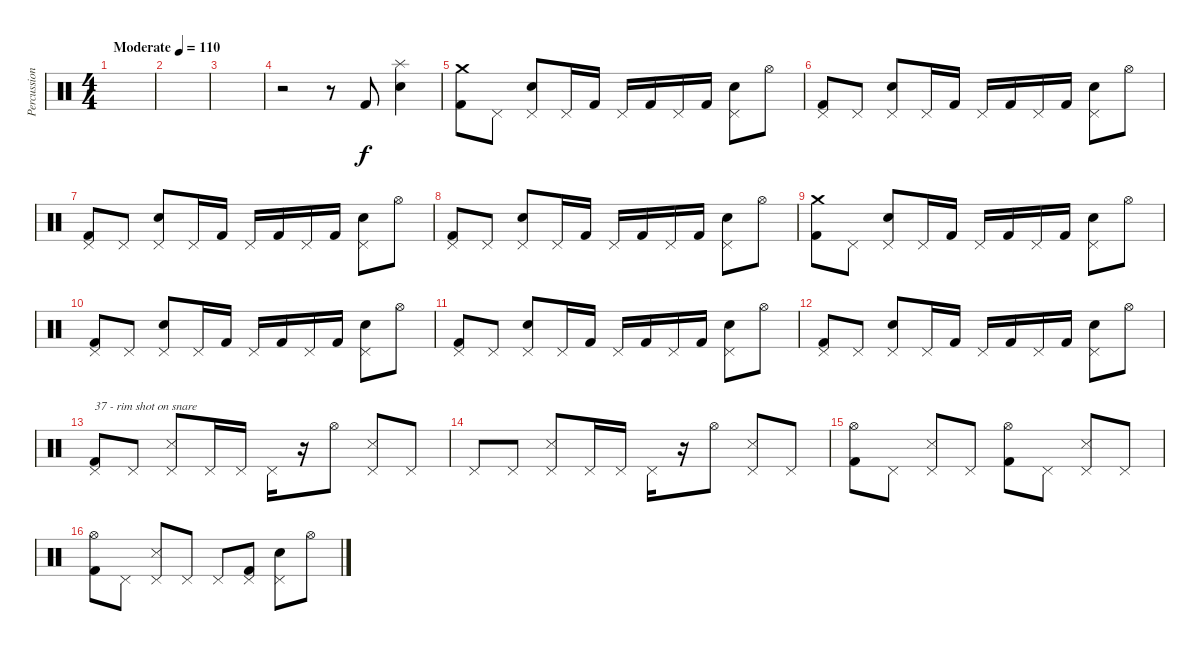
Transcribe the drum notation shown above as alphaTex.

\track ("Percussion" "Percussion") {instrument percussion}
\staff {score}
\articulation defaults
\ts (4 4)
\tempo (110 "Moderate")
\clef neutral
\ks c
|
|
|
r.2 r.8 "Kick (hit) 2".8 ("Electric Snare (hit)" "Splash (hit)").4{dy f} |
("Crash medium (hit)" "Kick (hit) 2").8 "Pedal Hi-Hat (hit)".8 ("Pedal Hi-Hat (hit)" "Electric Snare (hit)").8 "Pedal Hi-Hat (hit)".16 "Kick (hit) 2".16 "Pedal Hi-Hat (hit)".16 "Kick (hit) 2".16 "Pedal Hi-Hat (hit)".16 "Kick (hit) 2".16 ("Pedal Hi-Hat (hit)" "Electric Snare (hit)").8 "Hi-Hat (open)".8 |
("Pedal Hi-Hat (hit)" "Kick (hit) 2").8 "Pedal Hi-Hat (hit)".8 ("Pedal Hi-Hat (hit)" "Electric Snare (hit)").8 "Pedal Hi-Hat (hit)".16 "Kick (hit) 2".16 "Pedal Hi-Hat (hit)".16 "Kick (hit) 2".16 "Pedal Hi-Hat (hit)".16 "Kick (hit) 2".16 ("Pedal Hi-Hat (hit)" "Electric Snare (hit)").8 "Hi-Hat (open)".8 |
("Pedal Hi-Hat (hit)" "Kick (hit) 2").8 "Pedal Hi-Hat (hit)".8 ("Pedal Hi-Hat (hit)" "Electric Snare (hit)").8 "Pedal Hi-Hat (hit)".16 "Kick (hit) 2".16 "Pedal Hi-Hat (hit)".16 "Kick (hit) 2".16 "Pedal Hi-Hat (hit)".16 "Kick (hit) 2".16 ("Pedal Hi-Hat (hit)" "Electric Snare (hit)").8 "Hi-Hat (open)".8 |
("Pedal Hi-Hat (hit)" "Kick (hit) 2").8 "Pedal Hi-Hat (hit)".8 ("Pedal Hi-Hat (hit)" "Electric Snare (hit)").8 "Pedal Hi-Hat (hit)".16 "Kick (hit) 2".16 "Pedal Hi-Hat (hit)".16 "Kick (hit) 2".16 "Pedal Hi-Hat (hit)".16 "Kick (hit) 2".16 ("Pedal Hi-Hat (hit)" "Electric Snare (hit)").8 "Hi-Hat (open)".8 |
("Crash medium (hit)" "Kick (hit) 2").8 "Pedal Hi-Hat (hit)".8 ("Pedal Hi-Hat (hit)" "Electric Snare (hit)").8 "Pedal Hi-Hat (hit)".16 "Kick (hit) 2".16 "Pedal Hi-Hat (hit)".16 "Kick (hit) 2".16 "Pedal Hi-Hat (hit)".16 "Kick (hit) 2".16 ("Pedal Hi-Hat (hit)" "Electric Snare (hit)").8 "Hi-Hat (open)".8 |
("Pedal Hi-Hat (hit)" "Kick (hit) 2").8 "Pedal Hi-Hat (hit)".8 ("Pedal Hi-Hat (hit)" "Electric Snare (hit)").8 "Pedal Hi-Hat (hit)".16 "Kick (hit) 2".16 "Pedal Hi-Hat (hit)".16 "Kick (hit) 2".16 "Pedal Hi-Hat (hit)".16 "Kick (hit) 2".16 ("Pedal Hi-Hat (hit)" "Electric Snare (hit)").8 "Hi-Hat (open)".8 |
("Pedal Hi-Hat (hit)" "Kick (hit) 2").8 "Pedal Hi-Hat (hit)".8 ("Pedal Hi-Hat (hit)" "Electric Snare (hit)").8 "Pedal Hi-Hat (hit)".16 "Kick (hit) 2".16 "Pedal Hi-Hat (hit)".16 "Kick (hit) 2".16 "Pedal Hi-Hat (hit)".16 "Kick (hit) 2".16 ("Pedal Hi-Hat (hit)" "Electric Snare (hit)").8 "Hi-Hat (open)".8 |
("Pedal Hi-Hat (hit)" "Kick (hit) 2").8 "Pedal Hi-Hat (hit)".8 ("Pedal Hi-Hat (hit)" "Electric Snare (hit)").8 "Pedal Hi-Hat (hit)".16 "Kick (hit) 2".16 "Pedal Hi-Hat (hit)".16 "Kick (hit) 2".16 "Pedal Hi-Hat (hit)".16 "Kick (hit) 2".16 ("Pedal Hi-Hat (hit)" "Electric Snare (hit)").8 "Hi-Hat (open)".8 |
("Pedal Hi-Hat (hit)" "Kick (hit) 2").8{txt "37 - rim shot on snare"} "Pedal Hi-Hat (hit)".8 ("Pedal Hi-Hat (hit)" "Snare (side stick) 3").8 "Pedal Hi-Hat (hit)".16 "Pedal Hi-Hat (hit)".16 "Pedal Hi-Hat (hit)".16 r.16 "Hi-Hat (open)".8 ("Pedal Hi-Hat (hit)" "Snare (side stick) 3").8 "Pedal Hi-Hat (hit)".8 |
"Pedal Hi-Hat (hit)".8 "Pedal Hi-Hat (hit)".8 ("Pedal Hi-Hat (hit)" "Snare (side stick) 3").8 "Pedal Hi-Hat (hit)".16 "Pedal Hi-Hat (hit)".16 "Pedal Hi-Hat (hit)".16 r.16 "Hi-Hat (open)".8 ("Pedal Hi-Hat (hit)" "Snare (side stick) 3").8 "Pedal Hi-Hat (hit)".8 |
("Hi-Hat (open)" "Kick (hit) 2").8 "Pedal Hi-Hat (hit)".8 ("Pedal Hi-Hat (hit)" "Snare (side stick) 3").8 "Pedal Hi-Hat (hit)".8 ("Hi-Hat (open)" "Kick (hit) 2").8 "Pedal Hi-Hat (hit)".8 ("Pedal Hi-Hat (hit)" "Snare (side stick) 3").8 "Pedal Hi-Hat (hit)".8 |
("Hi-Hat (open)" "Kick (hit) 2").8 "Pedal Hi-Hat (hit)".8 ("Pedal Hi-Hat (hit)" "Snare (side stick) 3").8 "Pedal Hi-Hat (hit)".8 "Pedal Hi-Hat (hit)".8 ("Pedal Hi-Hat (hit)" "Kick (hit) 2").8 ("Pedal Hi-Hat (hit)" "Electric Snare (hit)").8 "Hi-Hat (open)".8
